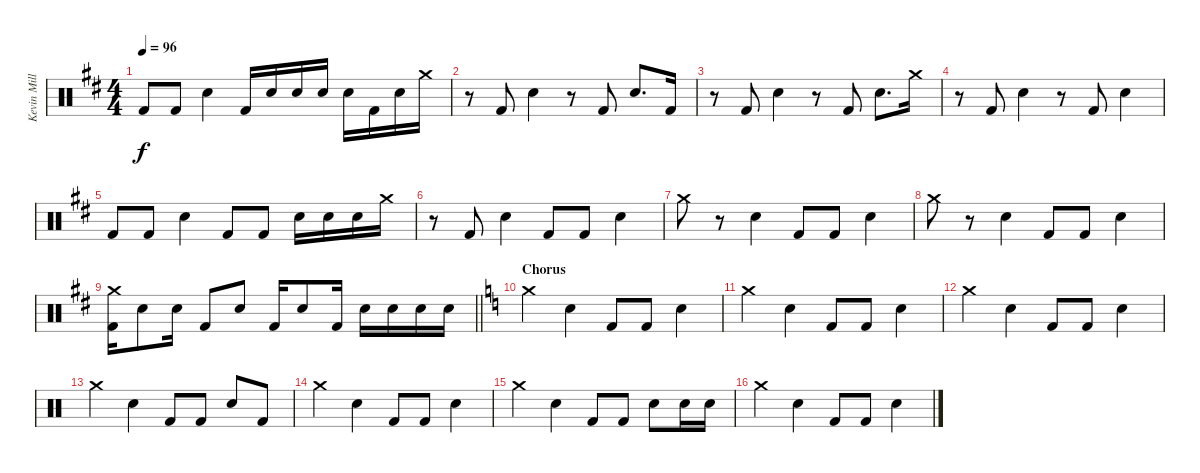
\track ("Kevin Miller (Drums)" "Kevin Mill") {instrument percussion}
\staff {score}
\articulation defaults
\ts (4 4)
\tempo 96
\clef neutral
\ks d "Kick (hit) 2".8{dy f} "Kick (hit) 2".8 "Electric Snare (hit)".4 "Kick (hit) 2".16 "Electric Snare (hit)".16 "Electric Snare (hit)".16 "Electric Snare (hit)".16 "Electric Snare (hit)".16 "Kick (hit) 2".16 "Electric Snare (hit)".16 "Crash medium (hit)".16
|
r.8 "Kick (hit) 2".8 "Electric Snare (hit)".4 r.8 "Kick (hit) 2".8 "Electric Snare (hit)".8{d} "Kick (hit) 2".16 |
r.8 "Kick (hit) 2".8 "Electric Snare (hit)".4 r.8 "Kick (hit) 2".8 "Electric Snare (hit)".8{d} "Crash medium (hit)".16 |
r.8 "Kick (hit) 2".8 "Electric Snare (hit)".4 r.8 "Kick (hit) 2".8 "Electric Snare (hit)".4 |
"Kick (hit) 2".8 "Kick (hit) 2".8 "Electric Snare (hit)".4 "Kick (hit) 2".8 "Kick (hit) 2".8 "Electric Snare (hit)".16 "Electric Snare (hit)".16 "Electric Snare (hit)".16 "Crash medium (hit)".16 |
r.8 "Kick (hit) 2".8 "Electric Snare (hit)".4 "Kick (hit) 2".8 "Kick (hit) 2".8 "Electric Snare (hit)".4 |
"Crash medium (hit)".8 r.8 "Electric Snare (hit)".4 "Kick (hit) 2".8 "Kick (hit) 2".8 "Electric Snare (hit)".4 |
"Crash medium (hit)".8 r.8 "Electric Snare (hit)".4 "Kick (hit) 2".8 "Kick (hit) 2".8 "Electric Snare (hit)".4 |
\barLineRight lightlight
("Crash medium (hit)" "Kick (hit) 2").16 "Electric Snare (hit)".8 "Electric Snare (hit)".16 "Kick (hit) 2".8 "Electric Snare (hit)".8 "Kick (hit) 2".16 "Electric Snare (hit)".8 "Kick (hit) 2".16 "Electric Snare (hit)".16 "Electric Snare (hit)".16 "Electric Snare (hit)".16 "Electric Snare (hit)".16 |
\section ("" "Chorus")
\ks c "Crash medium (hit)".4 "Electric Snare (hit)".4 "Kick (hit) 2".8 "Kick (hit) 2".8 "Electric Snare (hit)".4
|
"Crash medium (hit)".4 "Electric Snare (hit)".4 "Kick (hit) 2".8 "Kick (hit) 2".8 "Electric Snare (hit)".4 |
"Crash medium (hit)".4 "Electric Snare (hit)".4 "Kick (hit) 2".8 "Kick (hit) 2".8 "Electric Snare (hit)".4 |
"Crash medium (hit)".4 "Electric Snare (hit)".4 "Kick (hit) 2".8 "Kick (hit) 2".8 "Electric Snare (hit)".8 "Kick (hit) 2".8 |
"Crash medium (hit)".4 "Electric Snare (hit)".4 "Kick (hit) 2".8 "Kick (hit) 2".8 "Electric Snare (hit)".4 |
"Crash medium (hit)".4 "Electric Snare (hit)".4 "Kick (hit) 2".8 "Kick (hit) 2".8 "Electric Snare (hit)".8 "Electric Snare (hit)".16 "Electric Snare (hit)".16 |
"Crash medium (hit)".4 "Electric Snare (hit)".4 "Kick (hit) 2".8 "Kick (hit) 2".8 "Electric Snare (hit)".4
